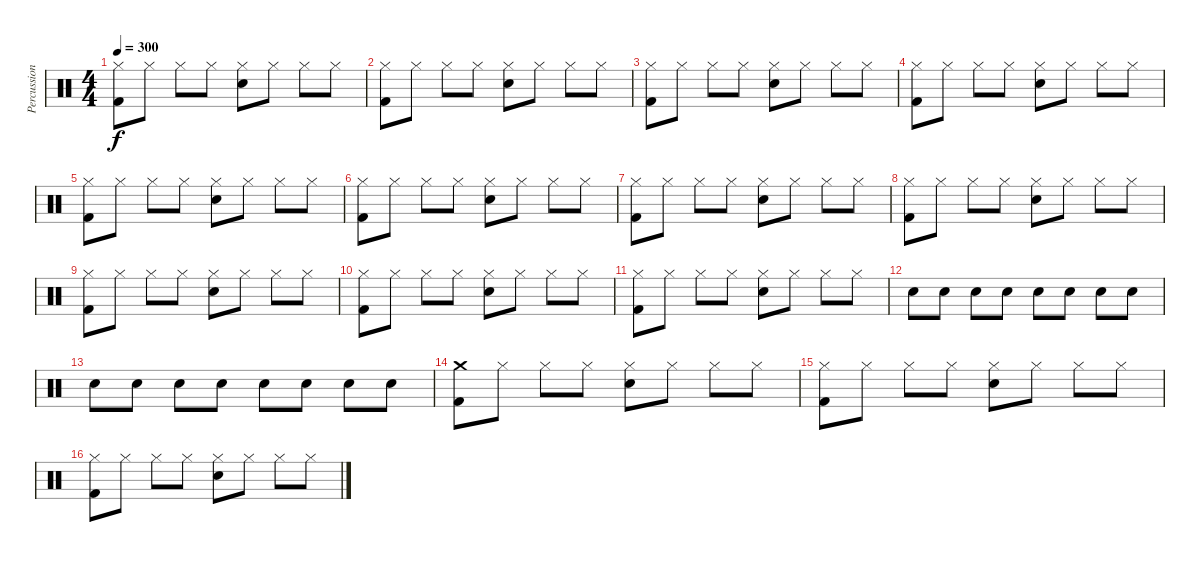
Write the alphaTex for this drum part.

\track ("Percussion" "Percussion") {instrument percussion}
\staff {score}
\articulation defaults
\ts (4 4)
\tempo 300
\clef neutral
\ks c
("Kick (hit) 2" "Hi-Hat (closed)").8{dy f} "Hi-Hat (closed)".8 "Hi-Hat (closed)".8 "Hi-Hat (closed)".8 ("Snare (hit) 2" "Hi-Hat (closed)").8 "Hi-Hat (closed)".8 "Hi-Hat (closed)".8 "Hi-Hat (closed)".8 |
("Kick (hit) 2" "Hi-Hat (closed)").8 "Hi-Hat (closed)".8 "Hi-Hat (closed)".8 "Hi-Hat (closed)".8 ("Snare (hit) 2" "Hi-Hat (closed)").8 "Hi-Hat (closed)".8 "Hi-Hat (closed)".8 "Hi-Hat (closed)".8 |
("Kick (hit) 2" "Hi-Hat (closed)").8 "Hi-Hat (closed)".8 "Hi-Hat (closed)".8 "Hi-Hat (closed)".8 ("Snare (hit) 2" "Hi-Hat (closed)").8 "Hi-Hat (closed)".8 "Hi-Hat (closed)".8 "Hi-Hat (closed)".8 |
("Kick (hit) 2" "Hi-Hat (closed)").8 "Hi-Hat (closed)".8 "Hi-Hat (closed)".8 "Hi-Hat (closed)".8 ("Snare (hit) 2" "Hi-Hat (closed)").8 "Hi-Hat (closed)".8 "Hi-Hat (closed)".8 "Hi-Hat (closed)".8 |
("Kick (hit) 2" "Hi-Hat (closed)").8 "Hi-Hat (closed)".8 "Hi-Hat (closed)".8 "Hi-Hat (closed)".8 ("Snare (hit) 2" "Hi-Hat (closed)").8 "Hi-Hat (closed)".8 "Hi-Hat (closed)".8 "Hi-Hat (closed)".8 |
("Kick (hit) 2" "Hi-Hat (closed)").8 "Hi-Hat (closed)".8 "Hi-Hat (closed)".8 "Hi-Hat (closed)".8 ("Snare (hit) 2" "Hi-Hat (closed)").8 "Hi-Hat (closed)".8 "Hi-Hat (closed)".8 "Hi-Hat (closed)".8 |
("Kick (hit) 2" "Hi-Hat (closed)").8 "Hi-Hat (closed)".8 "Hi-Hat (closed)".8 "Hi-Hat (closed)".8 ("Snare (hit) 2" "Hi-Hat (closed)").8 "Hi-Hat (closed)".8 "Hi-Hat (closed)".8 "Hi-Hat (closed)".8 |
("Kick (hit) 2" "Hi-Hat (closed)").8 "Hi-Hat (closed)".8 "Hi-Hat (closed)".8 "Hi-Hat (closed)".8 ("Snare (hit) 2" "Hi-Hat (closed)").8 "Hi-Hat (closed)".8 "Hi-Hat (closed)".8 "Hi-Hat (closed)".8 |
("Kick (hit) 2" "Hi-Hat (closed)").8 "Hi-Hat (closed)".8 "Hi-Hat (closed)".8 "Hi-Hat (closed)".8 ("Snare (hit) 2" "Hi-Hat (closed)").8 "Hi-Hat (closed)".8 "Hi-Hat (closed)".8 "Hi-Hat (closed)".8 |
("Kick (hit) 2" "Hi-Hat (closed)").8 "Hi-Hat (closed)".8 "Hi-Hat (closed)".8 "Hi-Hat (closed)".8 ("Snare (hit) 2" "Hi-Hat (closed)").8 "Hi-Hat (closed)".8 "Hi-Hat (closed)".8 "Hi-Hat (closed)".8 |
("Kick (hit) 2" "Hi-Hat (closed)").8 "Hi-Hat (closed)".8 "Hi-Hat (closed)".8 "Hi-Hat (closed)".8 ("Snare (hit) 2" "Hi-Hat (closed)").8 "Hi-Hat (closed)".8 "Hi-Hat (closed)".8 "Hi-Hat (closed)".8 |
"Snare (hit) 2".8 "Snare (hit) 2".8 "Snare (hit) 2".8 "Snare (hit) 2".8 "Snare (hit) 2".8 "Snare (hit) 2".8 "Snare (hit) 2".8 "Snare (hit) 2".8 |
"Snare (hit) 2".8 "Snare (hit) 2".8 "Snare (hit) 2".8 "Snare (hit) 2".8 "Snare (hit) 2".8 "Snare (hit) 2".8 "Snare (hit) 2".8 "Snare (hit) 2".8 |
("Crash medium (hit)" "Kick (hit) 2").8 "Hi-Hat (closed)".8 "Hi-Hat (closed)".8 "Hi-Hat (closed)".8 ("Snare (hit) 2" "Hi-Hat (closed)").8 "Hi-Hat (closed)".8 "Hi-Hat (closed)".8 "Hi-Hat (closed)".8 |
("Kick (hit) 2" "Hi-Hat (closed)").8 "Hi-Hat (closed)".8 "Hi-Hat (closed)".8 "Hi-Hat (closed)".8 ("Snare (hit) 2" "Hi-Hat (closed)").8 "Hi-Hat (closed)".8 "Hi-Hat (closed)".8 "Hi-Hat (closed)".8 |
("Kick (hit) 2" "Hi-Hat (closed)").8 "Hi-Hat (closed)".8 "Hi-Hat (closed)".8 "Hi-Hat (closed)".8 ("Snare (hit) 2" "Hi-Hat (closed)").8 "Hi-Hat (closed)".8 "Hi-Hat (closed)".8 "Hi-Hat (closed)".8
